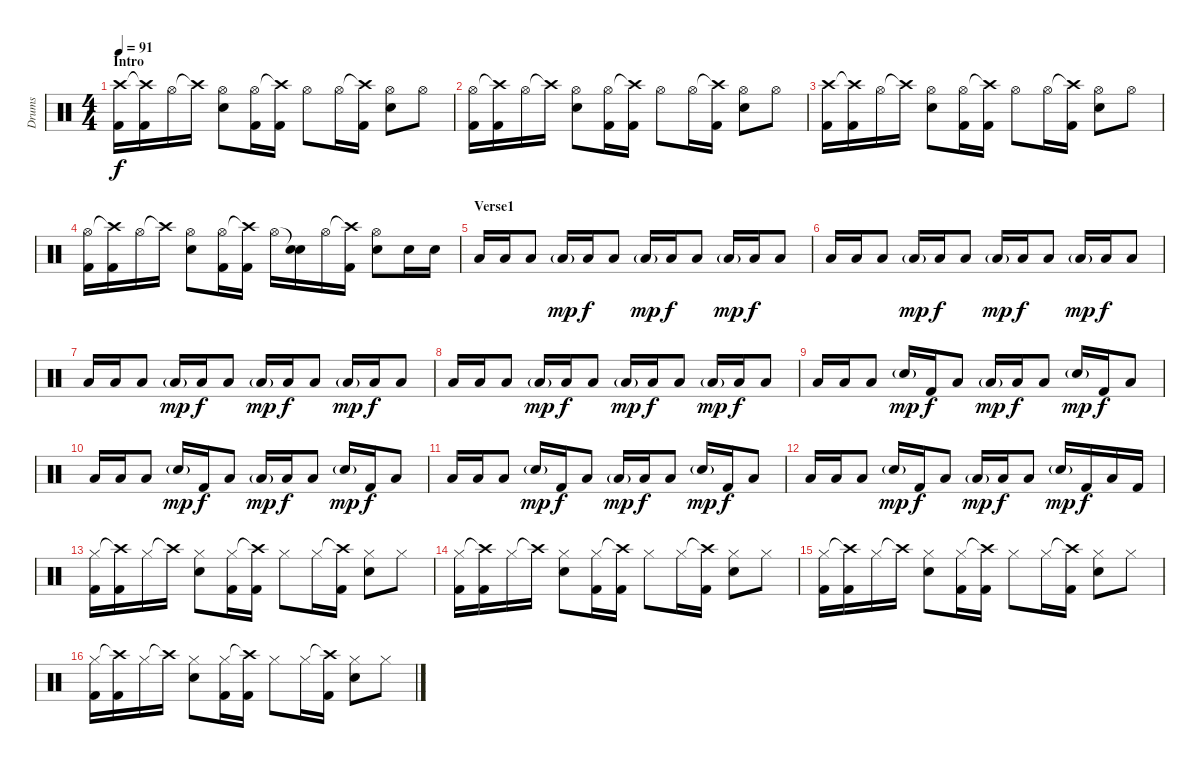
\track ("Drums" "Drums") {instrument percussion}
\staff {score}
\articulation defaults
\ts (4 4)
\section ("" "Intro")
\tempo 91
\clef neutral
\ks c
("Crash high (hit)" "Kick (hit) 2").16{dy f} ("Crash high (hit)"{t} "Kick (hit) 2").16 "Hi-Hat (open)".16 "Crash high (hit)"{t}.16 ("Hi-Hat (open)" "Electric Snare (hit)").8 ("Hi-Hat (open)" "Kick (hit) 2").16 ("Crash high (hit)"{t} "Kick (hit) 2").16 "Hi-Hat (open)".8 "Hi-Hat (open)".16 ("Crash high (hit)"{t} "Kick (hit) 2").16 ("Hi-Hat (open)" "Electric Snare (hit)").8 "Hi-Hat (open)".8 |
("Hi-Hat (open)" "Kick (hit) 2").16 ("Crash high (hit)"{t} "Kick (hit) 2").16 "Hi-Hat (open)".16 "Crash high (hit)"{t}.16 ("Hi-Hat (open)" "Electric Snare (hit)").8 ("Hi-Hat (open)" "Kick (hit) 2").16 ("Crash high (hit)"{t} "Kick (hit) 2").16 "Hi-Hat (open)".8 "Hi-Hat (open)".16 ("Crash high (hit)"{t} "Kick (hit) 2").16 ("Hi-Hat (open)" "Electric Snare (hit)").8 "Hi-Hat (open)".8 |
("Crash high (hit)" "Kick (hit) 2").16 ("Crash high (hit)"{t} "Kick (hit) 2").16 "Hi-Hat (open)".16 "Crash high (hit)"{t}.16 ("Hi-Hat (open)" "Electric Snare (hit)").8 ("Hi-Hat (open)" "Kick (hit) 2").16 ("Crash high (hit)"{t} "Kick (hit) 2").16 "Hi-Hat (open)".8 "Hi-Hat (open)".16 ("Crash high (hit)"{t} "Kick (hit) 2").16 ("Hi-Hat (open)" "Electric Snare (hit)").8 "Hi-Hat (open)".8 |
("Hi-Hat (open)" "Kick (hit) 2").16 ("Crash high (hit)"{t} "Kick (hit) 2").16 "Hi-Hat (open)".16 "Crash high (hit)"{t}.16 ("Hi-Hat (open)" "Electric Snare (hit)").8 ("Hi-Hat (open)" "Kick (hit) 2").16 ("Crash high (hit)"{t} "Kick (hit) 2").16 "Hi-Hat (open)".16 ("Snare (hit)"{t} "Electric Snare (hit)").16 "Hi-Hat (open)".16 ("Crash high (hit)"{t} "Kick (hit) 2").16 ("Hi-Hat (open)" "Electric Snare (hit)").8 "Electric Snare (hit)".16 "Electric Snare (hit)".16 |
\section ("" "Verse1")
"Low Floor Tom (hit)".16 "Low Floor Tom (hit)".16 "Low Floor Tom (hit)".8 "Low Floor Tom (hit)"{g}.16{dy mp} "Low Floor Tom (hit)".16{dy f} "Low Floor Tom (hit)".8 "Low Floor Tom (hit)"{g}.16{dy mp} "Low Floor Tom (hit)".16{dy f} "Low Floor Tom (hit)".8 "Low Floor Tom (hit)"{g}.16{dy mp} "Low Floor Tom (hit)".16{dy f} "Low Floor Tom (hit)".8 |
"Low Floor Tom (hit)".16 "Low Floor Tom (hit)".16 "Low Floor Tom (hit)".8 "Low Floor Tom (hit)"{g}.16{dy mp} "Low Floor Tom (hit)".16{dy f} "Low Floor Tom (hit)".8 "Low Floor Tom (hit)"{g}.16{dy mp} "Low Floor Tom (hit)".16{dy f} "Low Floor Tom (hit)".8 "Low Floor Tom (hit)"{g}.16{dy mp} "Low Floor Tom (hit)".16{dy f} "Low Floor Tom (hit)".8 |
"Low Floor Tom (hit)".16 "Low Floor Tom (hit)".16 "Low Floor Tom (hit)".8 "Low Floor Tom (hit)"{g}.16{dy mp} "Low Floor Tom (hit)".16{dy f} "Low Floor Tom (hit)".8 "Low Floor Tom (hit)"{g}.16{dy mp} "Low Floor Tom (hit)".16{dy f} "Low Floor Tom (hit)".8 "Low Floor Tom (hit)"{g}.16{dy mp} "Low Floor Tom (hit)".16{dy f} "Low Floor Tom (hit)".8 |
"Low Floor Tom (hit)".16 "Low Floor Tom (hit)".16 "Low Floor Tom (hit)".8 "Low Floor Tom (hit)"{g}.16{dy mp} "Low Floor Tom (hit)".16{dy f} "Low Floor Tom (hit)".8 "Low Floor Tom (hit)"{g}.16{dy mp} "Low Floor Tom (hit)".16{dy f} "Low Floor Tom (hit)".8 "Low Floor Tom (hit)"{g}.16{dy mp} "Low Floor Tom (hit)".16{dy f} "Low Floor Tom (hit)".8 |
"Low Floor Tom (hit)".16 "Low Floor Tom (hit)".16 "Low Floor Tom (hit)".8 "Electric Snare (hit)"{g}.16{dy mp} "Kick (hit) 2".16{dy f} "Low Floor Tom (hit)".8 "Low Floor Tom (hit)"{g}.16{dy mp} "Low Floor Tom (hit)".16{dy f} "Low Floor Tom (hit)".8 "Electric Snare (hit)"{g}.16{dy mp} "Kick (hit) 2".16{dy f} "Low Floor Tom (hit)".8 |
"Low Floor Tom (hit)".16 "Low Floor Tom (hit)".16 "Low Floor Tom (hit)".8 "Electric Snare (hit)"{g}.16{dy mp} "Kick (hit) 2".16{dy f} "Low Floor Tom (hit)".8 "Low Floor Tom (hit)"{g}.16{dy mp} "Low Floor Tom (hit)".16{dy f} "Low Floor Tom (hit)".8 "Electric Snare (hit)"{g}.16{dy mp} "Kick (hit) 2".16{dy f} "Low Floor Tom (hit)".8 |
"Low Floor Tom (hit)".16 "Low Floor Tom (hit)".16 "Low Floor Tom (hit)".8 "Electric Snare (hit)"{g}.16{dy mp} "Kick (hit) 2".16{dy f} "Low Floor Tom (hit)".8 "Low Floor Tom (hit)"{g}.16{dy mp} "Low Floor Tom (hit)".16{dy f} "Low Floor Tom (hit)".8 "Electric Snare (hit)"{g}.16{dy mp} "Kick (hit) 2".16{dy f} "Low Floor Tom (hit)".8 |
"Low Floor Tom (hit)".16 "Low Floor Tom (hit)".16 "Low Floor Tom (hit)".8 "Electric Snare (hit)"{g}.16{dy mp} "Kick (hit) 2".16{dy f} "Low Floor Tom (hit)".8 "Low Floor Tom (hit)"{g}.16{dy mp} "Low Floor Tom (hit)".16{dy f} "Low Floor Tom (hit)".8 "Electric Snare (hit)"{g}.16{dy mp} "Kick (hit) 2".16{dy f} "Low Floor Tom (hit)".16 "Kick (hit) 2".16 |
("Hi-Hat (closed)" "Kick (hit) 2").16 ("Crash high (hit)"{t} "Kick (hit) 2").16 "Hi-Hat (closed)".16 "Crash high (hit)"{t}.16 ("Hi-Hat (closed)" "Electric Snare (hit)").8 ("Hi-Hat (closed)" "Kick (hit) 2").16 ("Crash high (hit)"{t} "Kick (hit) 2").16 "Hi-Hat (closed)".8 "Hi-Hat (closed)".16 ("Crash high (hit)"{t} "Kick (hit) 2").16 ("Hi-Hat (closed)" "Electric Snare (hit)").8 "Hi-Hat (closed)".8 |
("Hi-Hat (closed)" "Kick (hit) 2").16 ("Crash high (hit)"{t} "Kick (hit) 2").16 "Hi-Hat (closed)".16 "Crash high (hit)"{t}.16 ("Hi-Hat (closed)" "Electric Snare (hit)").8 ("Hi-Hat (closed)" "Kick (hit) 2").16 ("Crash high (hit)"{t} "Kick (hit) 2").16 "Hi-Hat (closed)".8 "Hi-Hat (closed)".16 ("Crash high (hit)"{t} "Kick (hit) 2").16 ("Hi-Hat (closed)" "Electric Snare (hit)").8 "Hi-Hat (closed)".8 |
("Hi-Hat (closed)" "Kick (hit) 2").16 ("Crash high (hit)"{t} "Kick (hit) 2").16 "Hi-Hat (closed)".16 "Crash high (hit)"{t}.16 ("Hi-Hat (closed)" "Electric Snare (hit)").8 ("Hi-Hat (closed)" "Kick (hit) 2").16 ("Crash high (hit)"{t} "Kick (hit) 2").16 "Hi-Hat (closed)".8 "Hi-Hat (closed)".16 ("Crash high (hit)"{t} "Kick (hit) 2").16 ("Hi-Hat (closed)" "Electric Snare (hit)").8 "Hi-Hat (closed)".8 |
("Hi-Hat (closed)" "Kick (hit) 2").16 ("Crash high (hit)"{t} "Kick (hit) 2").16 "Hi-Hat (closed)".16 "Crash high (hit)"{t}.16 ("Hi-Hat (closed)" "Electric Snare (hit)").8 ("Hi-Hat (closed)" "Kick (hit) 2").16 ("Crash high (hit)"{t} "Kick (hit) 2").16 "Hi-Hat (closed)".8 "Hi-Hat (closed)".16 ("Crash high (hit)"{t} "Kick (hit) 2").16 ("Hi-Hat (closed)" "Electric Snare (hit)").8 "Hi-Hat (closed)".8
